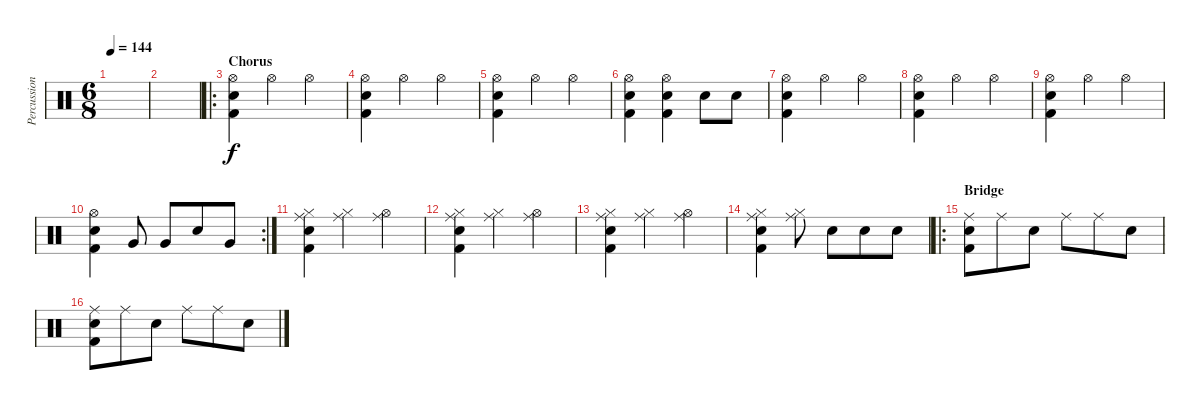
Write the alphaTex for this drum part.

\track ("Percussion" "Percussion") {instrument percussion}
\staff {score}
\articulation defaults
\ts (6 8)
\tempo 144
\clef neutral
\ks c
|
|
\ro
\section ("" "Chorus")
("Hi-Hat (open)" "Electric Snare (hit)" "Kick (hit) 2").4 "Hi-Hat (open)".4 "Hi-Hat (open)".4 |
("Hi-Hat (open)" "Electric Snare (hit)" "Kick (hit) 2").4 "Hi-Hat (open)".4 "Hi-Hat (open)".4 |
("Hi-Hat (open)" "Electric Snare (hit)" "Kick (hit) 2").4 "Hi-Hat (open)".4 "Hi-Hat (open)".4 |
("Hi-Hat (open)" "Electric Snare (hit)" "Kick (hit) 2").4 ("Hi-Hat (open)" "Electric Snare (hit)" "Kick (hit) 2").4 "Electric Snare (hit)".8 "Electric Snare (hit)".8 |
("Hi-Hat (open)" "Electric Snare (hit)" "Kick (hit) 2").4 "Hi-Hat (open)".4 "Hi-Hat (open)".4 |
("Hi-Hat (open)" "Electric Snare (hit)" "Kick (hit) 2").4 "Hi-Hat (open)".4 "Hi-Hat (open)".4 |
("Hi-Hat (open)" "Electric Snare (hit)" "Kick (hit) 2").4 "Hi-Hat (open)".4 "Hi-Hat (open)".4 |
\rc 2
("Hi-Hat (open)" "Electric Snare (hit)" "Kick (hit) 2").4 "Very Low Tom (hit)".8 "Very Low Tom (hit)".8 "Electric Snare (hit)".8 "Very Low Tom (hit)".8 |
("Ride (middle)" "Hi-Hat (closed)" "Electric Snare (hit)" "Kick (hit) 2").4 ("Ride (middle)" "Hi-Hat (closed)").4 ("Ride (middle)" "Hi-Hat (open)").4 |
("Ride (middle)" "Hi-Hat (closed)" "Electric Snare (hit)" "Kick (hit) 2").4 ("Ride (middle)" "Hi-Hat (closed)").4 ("Ride (middle)" "Hi-Hat (open)").4 |
("Ride (middle)" "Hi-Hat (closed)" "Electric Snare (hit)" "Kick (hit) 2").4 ("Ride (middle)" "Hi-Hat (closed)").4 ("Ride (middle)" "Hi-Hat (open)").4 |
("Ride (middle)" "Hi-Hat (closed)" "Electric Snare (hit)" "Kick (hit) 2").4 ("Ride (middle)" "Hi-Hat (closed)").8 "Electric Snare (hit)".8 "Electric Snare (hit)".8 "Electric Snare (hit)".8 |
\ro
\section ("" "Bridge")
("Ride (middle)" "Electric Snare (hit)" "Kick (hit) 2").8 "Ride (middle)".8 "Electric Snare (hit)".8 "Ride (middle)".8 "Ride (middle)".8 "Electric Snare (hit)".8 |
("Ride (middle)" "Electric Snare (hit)" "Kick (hit) 2").8 "Ride (middle)".8 "Electric Snare (hit)".8 "Ride (middle)".8 "Ride (middle)".8 "Electric Snare (hit)".8
